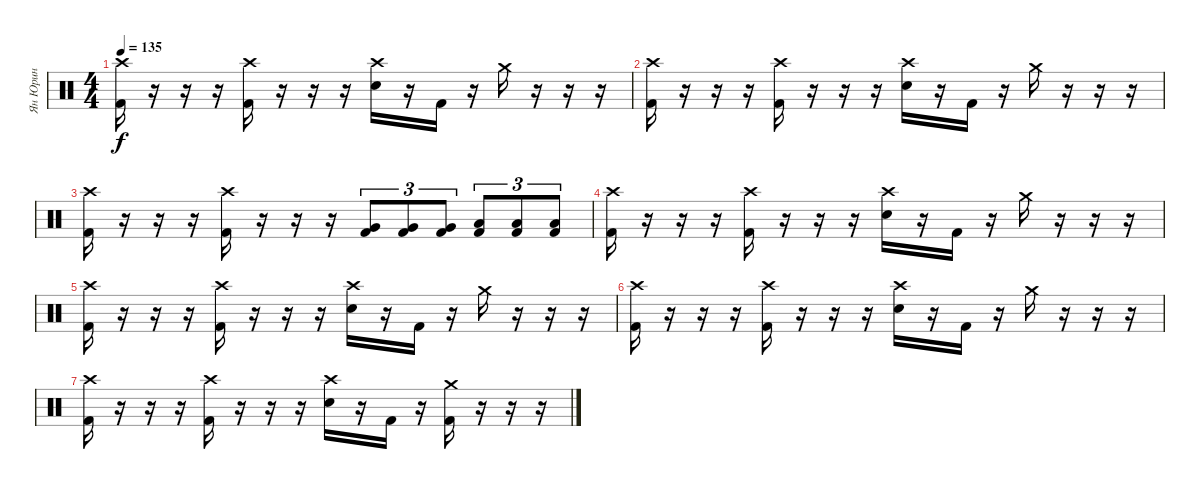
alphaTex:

\track ("Ян Юрин" "Ян Юрин") {instrument percussion}
\staff {score}
\articulation defaults
\ts (4 4)
\tempo 135
\clef neutral
\ks c
("Crash high (hit)" "Kick (hit) 2").16{dy f} r.16 r.16 r.16 ("Crash high (hit)" "Kick (hit) 2").16 r.16 r.16 r.16 ("Crash high (hit)" "Electric Snare (hit)").16 r.16 "Kick (hit) 2".16 r.16 "Crash medium (hit)".16 r.16 r.16 r.16 |
("Crash high (hit)" "Kick (hit) 2").16 r.16 r.16 r.16 ("Crash high (hit)" "Kick (hit) 2").16 r.16 r.16 r.16 ("Crash high (hit)" "Electric Snare (hit)").16 r.16 "Kick (hit) 2".16 r.16 "Crash medium (hit)".16 r.16 r.16 r.16 |
("Crash high (hit)" "Kick (hit) 2").16 r.16 r.16 r.16 ("Crash high (hit)" "Kick (hit) 2").16 r.16 r.16 r.16 ("Very Low Tom (hit)" "Kick (hit) 2").8{tu (3 2)} ("Very Low Tom (hit)" "Kick (hit) 2").8{tu (3 2)} ("Very Low Tom (hit)" "Kick (hit) 2").8{tu (3 2)} ("Low Floor Tom (hit)" "Kick (hit) 2").8{tu (3 2)} ("Low Floor Tom (hit)" "Kick (hit) 2").8{tu (3 2)} ("Low Floor Tom (hit)" "Kick (hit) 2").8{tu (3 2)} |
("Crash high (hit)" "Kick (hit) 2").16 r.16 r.16 r.16 ("Crash high (hit)" "Kick (hit) 2").16 r.16 r.16 r.16 ("Crash high (hit)" "Electric Snare (hit)").16 r.16 "Kick (hit) 2".16 r.16 "Crash medium (hit)".16 r.16 r.16 r.16 |
("Crash high (hit)" "Kick (hit) 2").16 r.16 r.16 r.16 ("Crash high (hit)" "Kick (hit) 2").16 r.16 r.16 r.16 ("Crash high (hit)" "Electric Snare (hit)").16 r.16 "Kick (hit) 2".16 r.16 "Crash medium (hit)".16 r.16 r.16 r.16 |
("Crash high (hit)" "Kick (hit) 2").16 r.16 r.16 r.16 ("Crash high (hit)" "Kick (hit) 2").16 r.16 r.16 r.16 ("Crash high (hit)" "Electric Snare (hit)").16 r.16 "Kick (hit) 2".16 r.16 "Crash medium (hit)".16 r.16 r.16 r.16 |
("Crash high (hit)" "Kick (hit) 2").16 r.16 r.16 r.16 ("Crash high (hit)" "Kick (hit) 2").16 r.16 r.16 r.16 ("Crash high (hit)" "Electric Snare (hit)").16 r.16 "Kick (hit) 2".16 r.16 ("Crash medium (hit)" "Kick (hit) 2").16 r.16 r.16 r.16
